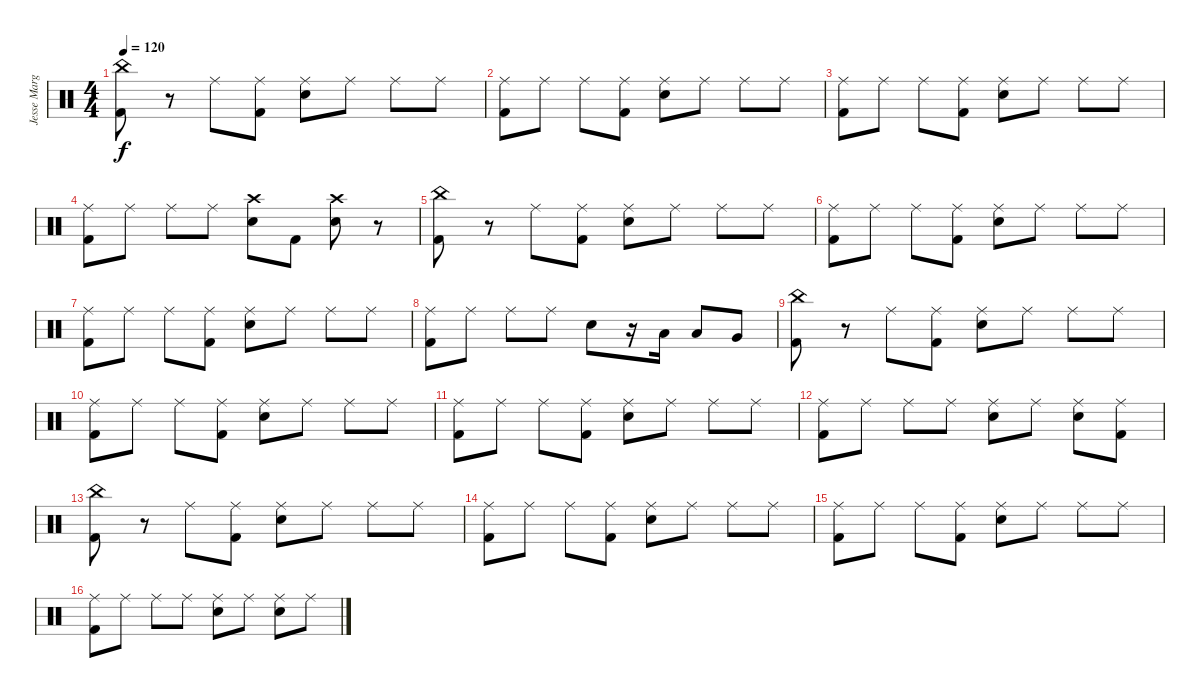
\track ("Jesse Margera" "Jesse Marg") {instrument percussion}
\staff {score}
\articulation defaults
\ts (4 4)
\tempo 120
\clef neutral
\ks c
("China (hit)" "Kick (hit) 2").8{dy f} r.8 "Ride (middle)".8 ("Ride (middle)" "Kick (hit) 2").8 ("Ride (middle)" "Electric Snare (hit)").8 "Ride (middle)".8 "Ride (middle)".8 "Ride (middle)".8 |
("Ride (middle)" "Kick (hit) 2").8 "Ride (middle)".8 "Ride (middle)".8 ("Ride (middle)" "Kick (hit) 2").8 ("Ride (middle)" "Electric Snare (hit)").8 "Ride (middle)".8 "Ride (middle)".8 "Ride (middle)".8 |
("Ride (middle)" "Kick (hit) 2").8 "Ride (middle)".8 "Ride (middle)".8 ("Ride (middle)" "Kick (hit) 2").8 ("Ride (middle)" "Electric Snare (hit)").8 "Ride (middle)".8 "Ride (middle)".8 "Ride (middle)".8 |
("Ride (middle)" "Kick (hit) 2").8 "Ride (middle)".8 "Ride (middle)".8 "Ride (middle)".8 ("Crash high (hit)" "Electric Snare (hit)").8 "Kick (hit) 2".8 ("Crash high (hit)" "Electric Snare (hit)").8 r.8 |
("China (hit)" "Kick (hit) 2").8 r.8 "Ride (middle)".8 ("Ride (middle)" "Kick (hit) 2").8 ("Ride (middle)" "Electric Snare (hit)").8 "Ride (middle)".8 "Ride (middle)".8 "Ride (middle)".8 |
("Ride (middle)" "Kick (hit) 2").8 "Ride (middle)".8 "Ride (middle)".8 ("Ride (middle)" "Kick (hit) 2").8 ("Ride (middle)" "Electric Snare (hit)").8 "Ride (middle)".8 "Ride (middle)".8 "Ride (middle)".8 |
("Ride (middle)" "Kick (hit) 2").8 "Ride (middle)".8 "Ride (middle)".8 ("Ride (middle)" "Kick (hit) 2").8 ("Ride (middle)" "Electric Snare (hit)").8 "Ride (middle)".8 "Ride (middle)".8 "Ride (middle)".8 |
("Ride (middle)" "Kick (hit) 2").8 "Ride (middle)".8 "Ride (middle)".8 "Ride (middle)".8 "Electric Snare (hit)".8 r.16 "Low Tom (hit)".16 "Low Tom (hit)".8 "Very Low Tom (hit)".8 |
("China (hit)" "Kick (hit) 2").8 r.8 "Ride (middle)".8 ("Ride (middle)" "Kick (hit) 2").8 ("Ride (middle)" "Electric Snare (hit)").8 "Ride (middle)".8 "Ride (middle)".8 "Ride (middle)".8 |
("Ride (middle)" "Kick (hit) 2").8 "Ride (middle)".8 "Ride (middle)".8 ("Ride (middle)" "Kick (hit) 2").8 ("Ride (middle)" "Electric Snare (hit)").8 "Ride (middle)".8 "Ride (middle)".8 "Ride (middle)".8 |
("Ride (middle)" "Kick (hit) 2").8 "Ride (middle)".8 "Ride (middle)".8 ("Ride (middle)" "Kick (hit) 2").8 ("Ride (middle)" "Electric Snare (hit)").8 "Ride (middle)".8 "Ride (middle)".8 "Ride (middle)".8 |
("Ride (middle)" "Kick (hit) 2").8 "Ride (middle)".8 "Ride (middle)".8 "Ride (middle)".8 ("Ride (middle)" "Electric Snare (hit)").8 "Ride (middle)".8 ("Ride (middle)" "Electric Snare (hit)").8 ("Ride (middle)" "Kick (hit) 2").8 |
("China (hit)" "Kick (hit) 2").8 r.8 "Ride (middle)".8 ("Ride (middle)" "Kick (hit) 2").8 ("Ride (middle)" "Electric Snare (hit)").8 "Ride (middle)".8 "Ride (middle)".8 "Ride (middle)".8 |
("Ride (middle)" "Kick (hit) 2").8 "Ride (middle)".8 "Ride (middle)".8 ("Ride (middle)" "Kick (hit) 2").8 ("Ride (middle)" "Electric Snare (hit)").8 "Ride (middle)".8 "Ride (middle)".8 "Ride (middle)".8 |
("Ride (middle)" "Kick (hit) 2").8 "Ride (middle)".8 "Ride (middle)".8 ("Ride (middle)" "Kick (hit) 2").8 ("Ride (middle)" "Electric Snare (hit)").8 "Ride (middle)".8 "Ride (middle)".8 "Ride (middle)".8 |
("Ride (middle)" "Kick (hit) 2").8 "Ride (middle)".8 "Ride (middle)".8 "Ride (middle)".8 ("Ride (middle)" "Electric Snare (hit)").8 "Ride (middle)".8 ("Ride (middle)" "Electric Snare (hit)").8 "Ride (middle)".8
